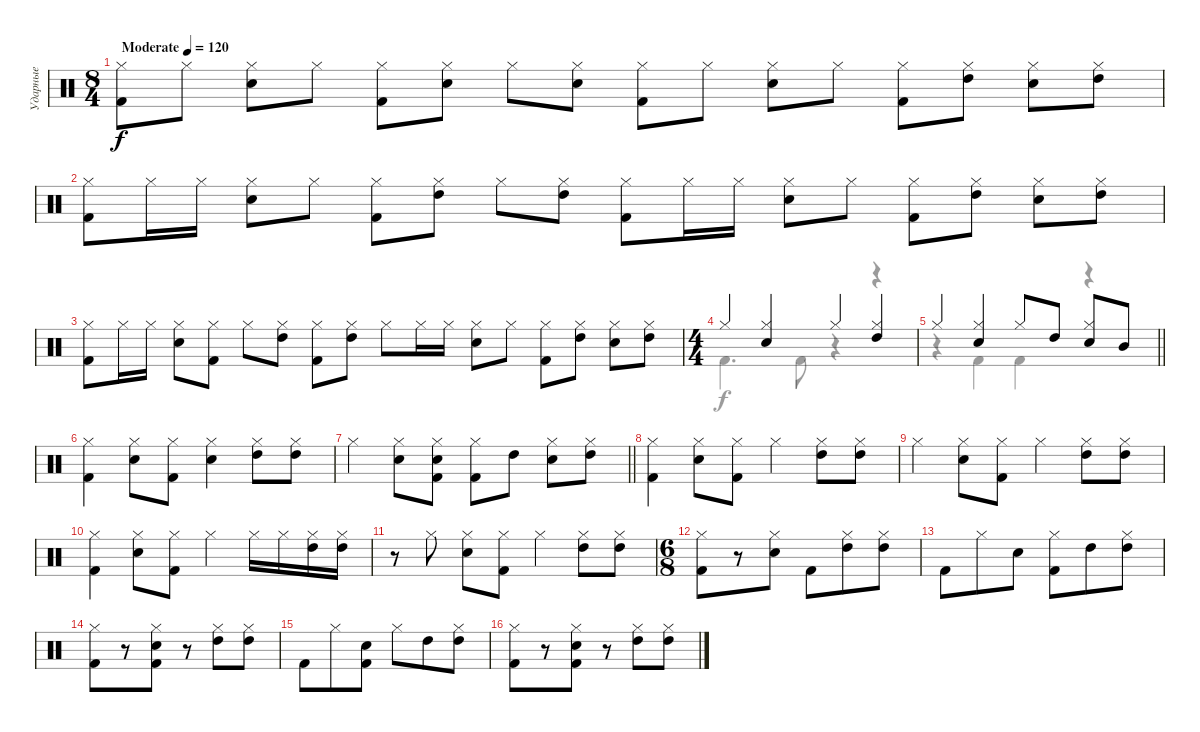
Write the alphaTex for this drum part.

\track ("Ударные" "Ударные") {instrument percussion}
\staff {score}
\articulation defaults
\voice
\ts (8 4)
\tempo (120 "Moderate")
\clef neutral
\ks c
("Hi-Hat (closed)" "Kick (hit) 2").8{dy f} "Hi-Hat (closed)".8 ("Hi-Hat (closed)" "Electric Snare (hit)").8 "Hi-Hat (closed)".8 ("Hi-Hat (closed)" "Kick (hit) 2").8 ("Hi-Hat (closed)" "Electric Snare (hit)").8 "Hi-Hat (closed)".8 ("Hi-Hat (closed)" "Electric Snare (hit)").8 ("Hi-Hat (closed)" "Kick (hit) 2").8 "Hi-Hat (closed)".8 ("Hi-Hat (closed)" "Electric Snare (hit)").8 "Hi-Hat (closed)".8 ("Hi-Hat (closed)" "Kick (hit) 2").8 ("Hi-Hat (closed)" "High Tom (hit)").8 ("Hi-Hat (closed)" "Electric Snare (hit)").8 ("Hi-Hat (closed)" "High Tom (hit)").8 |
("Hi-Hat (closed)" "Kick (hit) 2").8 "Hi-Hat (closed)".16 "Hi-Hat (closed)".16 ("Hi-Hat (closed)" "Electric Snare (hit)").8 "Hi-Hat (closed)".8 ("Hi-Hat (closed)" "Kick (hit) 2").8 ("Hi-Hat (closed)" "High Tom (hit)").8 "Hi-Hat (closed)".8 ("Hi-Hat (closed)" "High Tom (hit)").8 ("Hi-Hat (closed)" "Kick (hit) 2").8 "Hi-Hat (closed)".16 "Hi-Hat (closed)".16 ("Hi-Hat (closed)" "Electric Snare (hit)").8 "Hi-Hat (closed)".8 ("Hi-Hat (closed)" "Kick (hit) 2").8 ("Hi-Hat (closed)" "High Tom (hit)").8 ("Hi-Hat (closed)" "Electric Snare (hit)").8 ("Hi-Hat (closed)" "High Tom (hit)").8 |
("Hi-Hat (closed)" "Kick (hit) 2").8 "Hi-Hat (closed)".16 "Hi-Hat (closed)".16 ("Hi-Hat (closed)" "Electric Snare (hit)").8 ("Hi-Hat (closed)" "Kick (hit) 2").8 "Hi-Hat (closed)".8 ("Hi-Hat (closed)" "High Tom (hit)").8 ("Hi-Hat (closed)" "Kick (hit) 2").8 ("Hi-Hat (closed)" "High Tom (hit)").8 "Hi-Hat (closed)".8 "Hi-Hat (closed)".16 "Hi-Hat (closed)".16 ("Hi-Hat (closed)" "Electric Snare (hit)").8 "Hi-Hat (closed)".8 ("Hi-Hat (closed)" "Kick (hit) 2").8 ("Hi-Hat (closed)" "High Tom (hit)").8 ("Hi-Hat (closed)" "Electric Snare (hit)").8 ("Hi-Hat (closed)" "High Tom (hit)").8 |
\ts (4 4)
"Hi-Hat (closed)".4 ("Hi-Hat (closed)" "Electric Snare (hit)").4 "Hi-Hat (closed)".4 ("Hi-Hat (closed)" "High Tom (hit)").4 |
\barLineRight lightlight "Hi-Hat (closed)".4
("Hi-Hat (closed)" "Electric Snare (hit)").4 "Hi-Hat (closed)".8 "High Tom (hit)".8 ("Hi-Hat (closed)" "Electric Snare (hit)").8 "Mid Tom (hit)".8 |
("Hi-Hat (closed)" "Kick (hit) 2").4 ("Hi-Hat (closed)" "Electric Snare (hit)").8 ("Hi-Hat (closed)" "Kick (hit) 2").8 ("Hi-Hat (closed)" "Electric Snare (hit)").4 ("Hi-Hat (closed)" "High Tom (hit)").8 ("Hi-Hat (closed)" "High Tom (hit)").8 |
\barLineRight lightlight "Hi-Hat (closed)".4
("Hi-Hat (closed)" "Electric Snare (hit)").8 ("Hi-Hat (closed)" "Kick (hit) 2" "Electric Snare (hit)").8 ("Hi-Hat (closed)" "Kick (hit) 2").8 "High Tom (hit)".8 ("Hi-Hat (closed)" "Electric Snare (hit)").8 ("Hi-Hat (closed)" "High Tom (hit)").8 |
("Hi-Hat (closed)" "Kick (hit) 2").4 ("Hi-Hat (closed)" "Electric Snare (hit)").8 ("Hi-Hat (closed)" "Kick (hit) 2").8 "Hi-Hat (closed)".4 ("Hi-Hat (closed)" "High Tom (hit)").8 ("Hi-Hat (closed)" "High Tom (hit)").8 |
"Hi-Hat (closed)".4 ("Hi-Hat (closed)" "Electric Snare (hit)").8 ("Hi-Hat (closed)" "Kick (hit) 2").8 "Hi-Hat (closed)".4 ("Hi-Hat (closed)" "High Tom (hit)").8 ("Hi-Hat (closed)" "High Tom (hit)").8 |
("Hi-Hat (closed)" "Kick (hit) 2").4 ("Hi-Hat (closed)" "Electric Snare (hit)").8 ("Hi-Hat (closed)" "Kick (hit) 2").8 "Hi-Hat (closed)".4 "Hi-Hat (closed)".16 "Hi-Hat (closed)".16 ("Hi-Hat (closed)" "High Tom (hit)").16 ("Hi-Hat (closed)" "High Tom (hit)").16 |
r.8 "Hi-Hat (closed)".8 ("Hi-Hat (closed)" "Electric Snare (hit)").8 ("Hi-Hat (closed)" "Kick (hit) 2").8 "Hi-Hat (closed)".4 ("Hi-Hat (closed)" "High Tom (hit)").8 ("Hi-Hat (closed)" "High Tom (hit)").8 |
\ts (6 8)
("Hi-Hat (closed)" "Kick (hit) 2").8 r.8 ("Hi-Hat (closed)" "Electric Snare (hit)").8 "Kick (hit) 2".8 ("High Tom (hit)" "Hi-Hat (closed)").8 ("High Tom (hit)" "Hi-Hat (closed)").8 |
"Kick (hit) 2".8 "Hi-Hat (closed)".8 "Electric Snare (hit)".8 ("Kick (hit) 2" "Hi-Hat (closed)").8 "High Tom (hit)".8 ("High Tom (hit)" "Hi-Hat (closed)").8 |
("Hi-Hat (closed)" "Kick (hit) 2").8 r.8 ("Hi-Hat (closed)" "Electric Snare (hit)" "Kick (hit) 2").8 r.8 ("High Tom (hit)" "Hi-Hat (closed)").8 ("High Tom (hit)" "Hi-Hat (closed)").8 |
"Kick (hit) 2".8 "Hi-Hat (closed)".8 ("Electric Snare (hit)" "Kick (hit) 2").8 "Hi-Hat (closed)".8 "High Tom (hit)".8 ("High Tom (hit)" "Hi-Hat (closed)").8 |
("Hi-Hat (closed)" "Kick (hit) 2").8 r.8 ("Hi-Hat (closed)" "Electric Snare (hit)" "Kick (hit) 2").8 r.8 ("High Tom (hit)" "Hi-Hat (closed)").8 ("High Tom (hit)" "Hi-Hat (closed)").8
\voice
\clef neutral
\ottava regular
\simile none
\ks c
|
|
|
"Kick (hit) 2".4{d} "Kick (hit) 2".8 r.4 r.4 |
\barLineRight lightlight
r.4 "Kick (hit) 2".4 "Kick (hit) 2".4 r.4 |
|
\barLineRight lightlight
|
|
|
|
|
|
|
|
|
